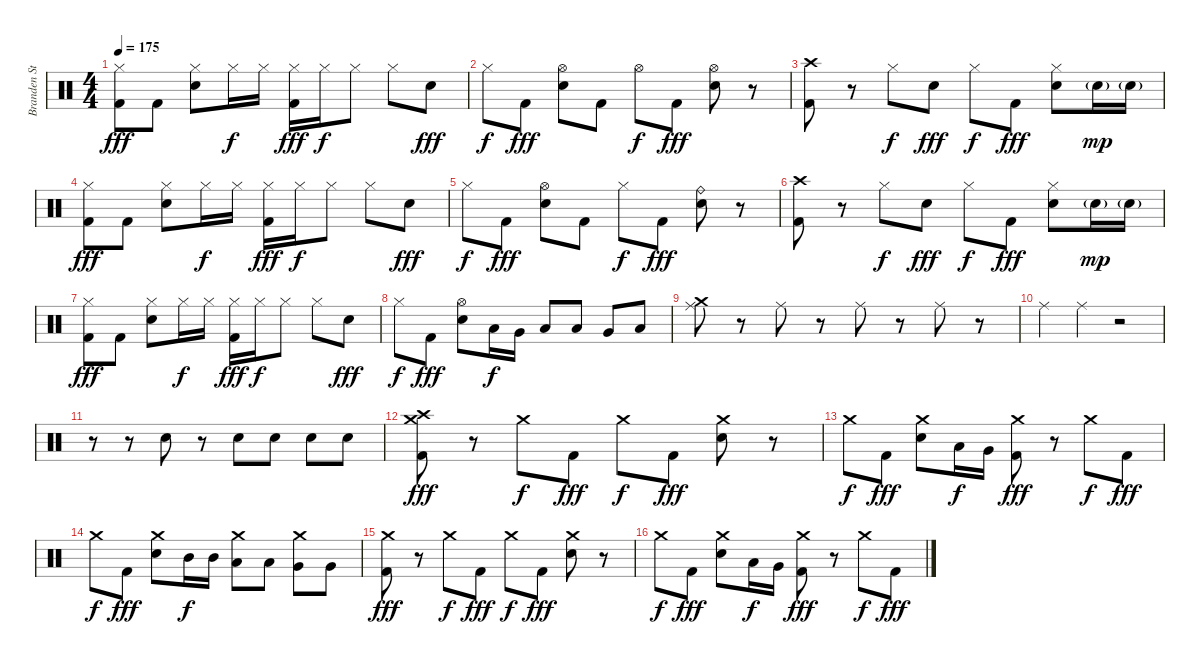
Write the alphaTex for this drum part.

\track ("Branden Steineckert (Drums)" "Branden St") {instrument percussion}
\staff {score}
\articulation defaults
\ts (4 4)
\tempo 175
\clef neutral
\ks c
("Kick (hit) 2" "Hi-Hat (closed)").8{dy fff} "Kick (hit) 2".8 ("Electric Snare (hit)" "Hi-Hat (closed)").8 "Hi-Hat (closed)".16{dy f} "Hi-Hat (closed)".16 ("Kick (hit) 2" "Hi-Hat (closed)").16{dy fff} "Hi-Hat (closed)".16{dy f} "Hi-Hat (closed)".8 "Hi-Hat (closed)".8 "Electric Snare (hit)".8{dy fff} |
"Hi-Hat (closed)".8{dy f} "Kick (hit) 2".8{dy fff} ("Electric Snare (hit)" "Hi-Hat (open)").8 "Kick (hit) 2".8 "Hi-Hat (open)".8{dy f} "Kick (hit) 2".8{dy fff} ("Electric Snare (hit)" "Hi-Hat (open)").8 r.8 |
("Kick (hit) 2" "Crash high (hit)").8 r.8 "Hi-Hat (closed)".8{dy f} "Electric Snare (hit)".8{dy fff} "Hi-Hat (closed)".8{dy f} "Kick (hit) 2".8{dy fff} ("Electric Snare (hit)" "Hi-Hat (closed)").8 "Electric Snare (hit)"{g}.16{dy mp} "Electric Snare (hit)"{g}.16 |
("Kick (hit) 2" "Hi-Hat (closed)").8{dy fff} "Kick (hit) 2".8 ("Electric Snare (hit)" "Hi-Hat (closed)").8 "Hi-Hat (closed)".16{dy f} "Hi-Hat (closed)".16 ("Kick (hit) 2" "Hi-Hat (closed)").16{dy fff} "Hi-Hat (closed)".16{dy f} "Hi-Hat (closed)".8 "Hi-Hat (closed)".8 "Electric Snare (hit)".8{dy fff} |
"Hi-Hat (closed)".8{dy f} "Kick (hit) 2".8{dy fff} ("Electric Snare (hit)" "Hi-Hat (open)").8 "Kick (hit) 2".8 "Hi-Hat (closed)".8{dy f} "Kick (hit) 2".8{dy fff} ("Electric Snare (hit)" "Ride (bell)").8 r.8 |
("Kick (hit) 2" "Crash high (hit)").8 r.8 "Hi-Hat (closed)".8{dy f} "Electric Snare (hit)".8{dy fff} "Hi-Hat (closed)".8{dy f} "Kick (hit) 2".8{dy fff} ("Electric Snare (hit)" "Hi-Hat (closed)").8 "Electric Snare (hit)"{g}.16{dy mp} "Electric Snare (hit)"{g}.16 |
("Kick (hit) 2" "Hi-Hat (closed)").8{dy fff} "Kick (hit) 2".8 ("Electric Snare (hit)" "Hi-Hat (closed)").8 "Hi-Hat (closed)".16{dy f} "Hi-Hat (closed)".16 ("Kick (hit) 2" "Hi-Hat (closed)").16{dy fff} "Hi-Hat (closed)".16{dy f} "Hi-Hat (closed)".8 "Hi-Hat (closed)".8 "Electric Snare (hit)".8{dy fff} |
"Hi-Hat (closed)".8{dy f} "Kick (hit) 2".8{dy fff} ("Electric Snare (hit)" "Hi-Hat (open)").8 "Low Tom (hit)".16{dy f} "Very Low Tom (hit)".16 "Low Tom (hit)".8 "Low Tom (hit)".8 "Very Low Tom (hit)".8 "Low Floor Tom (hit)".8 |
("Ride (middle)" "Crash medium (hit)").8 r.8 "Ride (middle)".8 r.8 "Ride (middle)".8 r.8 "Ride (middle)".8 r.8 |
"Ride (middle)".4 "Ride (middle)".4 r.2 |
r.8 r.8 "Electric Snare (hit)".8 r.8 "Electric Snare (hit)".8 "Electric Snare (hit)".8 "Electric Snare (hit)".8 "Electric Snare (hit)".8 |
("Kick (hit) 2" "Crash high (hit)" "Crash medium (hit)").8{dy fff} r.8 "Crash medium (hit)".8{dy f} "Kick (hit) 2".8{dy fff} "Crash medium (hit)".8{dy f} "Kick (hit) 2".8{dy fff} ("Electric Snare (hit)" "Crash medium (hit)").8 r.8 |
"Crash medium (hit)".8{dy f} "Kick (hit) 2".8{dy fff} ("Electric Snare (hit)" "Crash medium (hit)").8 "Low Tom (hit)".16{dy f} "Very Low Tom (hit)".16 ("Kick (hit) 2" "Crash medium (hit)").8{dy fff} r.8 "Crash medium (hit)".8{dy f} "Kick (hit) 2".8{dy fff} |
"Crash medium (hit)".8{dy f} "Kick (hit) 2".8{dy fff} ("Electric Snare (hit)" "Crash medium (hit)").8 "Mid Tom (hit)".16{dy f} "Mid Tom (hit)".16 ("Low Tom (hit)" "Crash medium (hit)").8 "Low Tom (hit)".8 ("Very Low Tom (hit)" "Crash medium (hit)").8 "Very Low Tom (hit)".8 |
("Kick (hit) 2" "Crash medium (hit)").8{dy fff} r.8 "Crash medium (hit)".8{dy f} "Kick (hit) 2".8{dy fff} "Crash medium (hit)".8{dy f} "Kick (hit) 2".8{dy fff} ("Electric Snare (hit)" "Crash medium (hit)").8 r.8 |
"Crash medium (hit)".8{dy f} "Kick (hit) 2".8{dy fff} ("Electric Snare (hit)" "Crash medium (hit)").8 "Low Tom (hit)".16{dy f} "Very Low Tom (hit)".16 ("Kick (hit) 2" "Crash medium (hit)").8{dy fff} r.8 "Crash medium (hit)".8{dy f} "Kick (hit) 2".8{dy fff}
